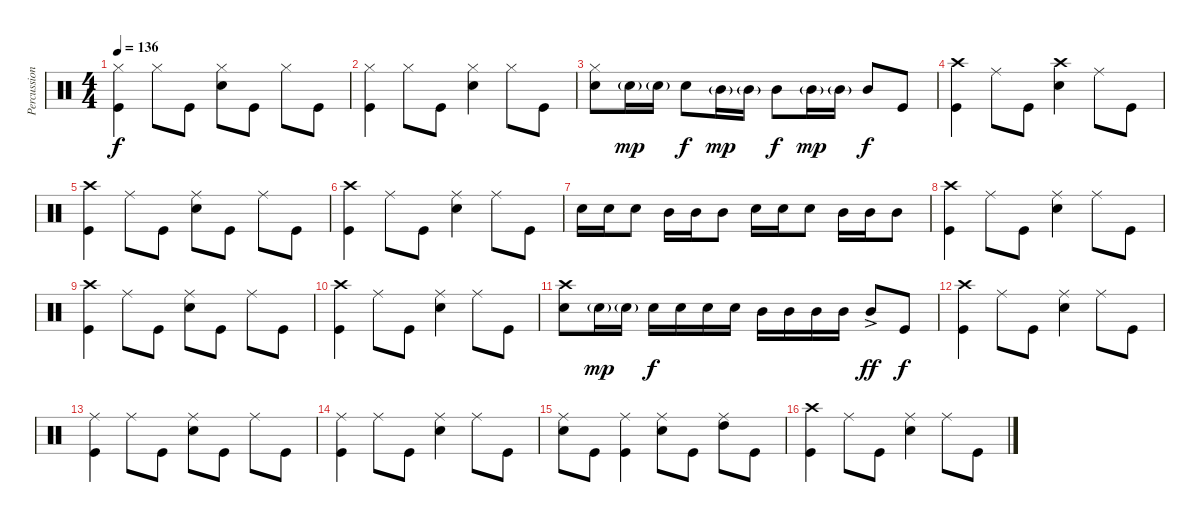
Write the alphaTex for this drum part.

\track ("Percussion" "Percussion") {instrument percussion}
\staff {score}
\articulation defaults
\ts (4 4)
\tempo 136
\clef neutral
\ks c
("Hi-Hat (closed)" "Kick (hit)").4{dy f} "Hi-Hat (closed)".8 "Kick (hit)".8 ("Hi-Hat (closed)" "Snare (hit) 2").8 "Kick (hit)".8 "Hi-Hat (closed)".8 "Kick (hit)".8 |
("Hi-Hat (closed)" "Kick (hit)").4 "Hi-Hat (closed)".8 "Kick (hit)".8 ("Hi-Hat (closed)" "Snare (hit) 2").4 "Hi-Hat (closed)".8 "Kick (hit)".8 |
("Hi-Hat (closed)" "Snare (hit) 2").8 "Snare (hit) 2"{g}.16{dy mp} "Snare (hit) 2"{g}.16 "Snare (hit) 2".8{dy f} "Mid Tom (hit)"{g}.16{dy mp} "Mid Tom (hit)"{g}.16 "Mid Tom (hit)".8{dy f} "Mid Tom (hit)"{g}.16{dy mp} "Mid Tom (hit)"{g}.16 "Mid Tom (hit)".8{dy f} "Kick (hit)".8 |
("Crash high (hit)" "Kick (hit)").4 "Ride (middle)".8 "Kick (hit)".8 ("Crash high (hit)" "Snare (hit) 2").4 "Ride (middle)".8 "Kick (hit)".8 |
("Crash high (hit)" "Kick (hit)").4 "Ride (middle)".8 "Kick (hit)".8 ("Ride (middle)" "Snare (hit) 2").8 "Kick (hit)".8 "Ride (middle)".8 "Kick (hit)".8 |
("Crash high (hit)" "Kick (hit)").4 "Ride (middle)".8 "Kick (hit)".8 ("Ride (middle)" "Snare (hit) 2").4 "Ride (middle)".8 "Kick (hit)".8 |
"Snare (hit) 2".16 "Snare (hit) 2".16 "Snare (hit) 2".8 "Mid Tom (hit)".16 "Mid Tom (hit)".16 "Mid Tom (hit)".8 "Snare (hit) 2".16 "Snare (hit) 2".16 "Snare (hit) 2".8 "Mid Tom (hit)".16 "Mid Tom (hit)".16 "Mid Tom (hit)".8 |
("Crash high (hit)" "Kick (hit)").4 "Ride (middle)".8 "Kick (hit)".8 ("Ride (middle)" "Snare (hit) 2").4 "Ride (middle)".8 "Kick (hit)".8 |
("Crash high (hit)" "Kick (hit)").4 "Ride (middle)".8 "Kick (hit)".8 ("Ride (middle)" "Snare (hit) 2").8 "Kick (hit)".8 "Ride (middle)".8 "Kick (hit)".8 |
("Crash high (hit)" "Kick (hit)").4 "Ride (middle)".8 "Kick (hit)".8 ("Ride (middle)" "Snare (hit) 2").4 "Ride (middle)".8 "Kick (hit)".8 |
("Crash high (hit)" "Snare (hit) 2").8 "Snare (hit) 2"{g}.16{dy mp} "Snare (hit) 2"{g}.16 "Snare (hit) 2".16{dy f} "Snare (hit) 2".16 "Snare (hit) 2".16 "Snare (hit) 2".16 "Mid Tom (hit)".16 "Mid Tom (hit)".16 "Mid Tom (hit)".16 "Mid Tom (hit)".16 "Mid Tom (hit)"{ac}.8{dy ff} "Kick (hit)".8{dy f} |
("Crash high (hit)" "Kick (hit)").4 "Ride (middle)".8 "Kick (hit)".8 ("Ride (middle)" "Snare (hit) 2").4 "Ride (middle)".8 "Kick (hit)".8 |
("Ride (middle)" "Kick (hit)").4 "Ride (middle)".8 "Kick (hit)".8 ("Ride (middle)" "Snare (hit) 2").8 "Kick (hit)".8 "Ride (middle)".8 "Kick (hit)".8 |
("Ride (middle)" "Kick (hit)").4 "Ride (middle)".8 "Kick (hit)".8 ("Ride (middle)" "Snare (hit) 2").4 "Ride (middle)".8 "Kick (hit)".8 |
("Ride (middle)" "Snare (hit) 2").8 "Kick (hit)".8 ("Ride (middle)" "Kick (hit)").4 ("Ride (middle)" "Snare (hit) 2").8 "Kick (hit)".8 ("Ride (middle)" "High Tom (hit)").8 "Kick (hit)".8 |
("Crash high (hit)" "Kick (hit)").4 "Ride (middle)".8 "Kick (hit)".8 ("Ride (middle)" "Snare (hit) 2").4 "Ride (middle)".8 "Kick (hit)".8
